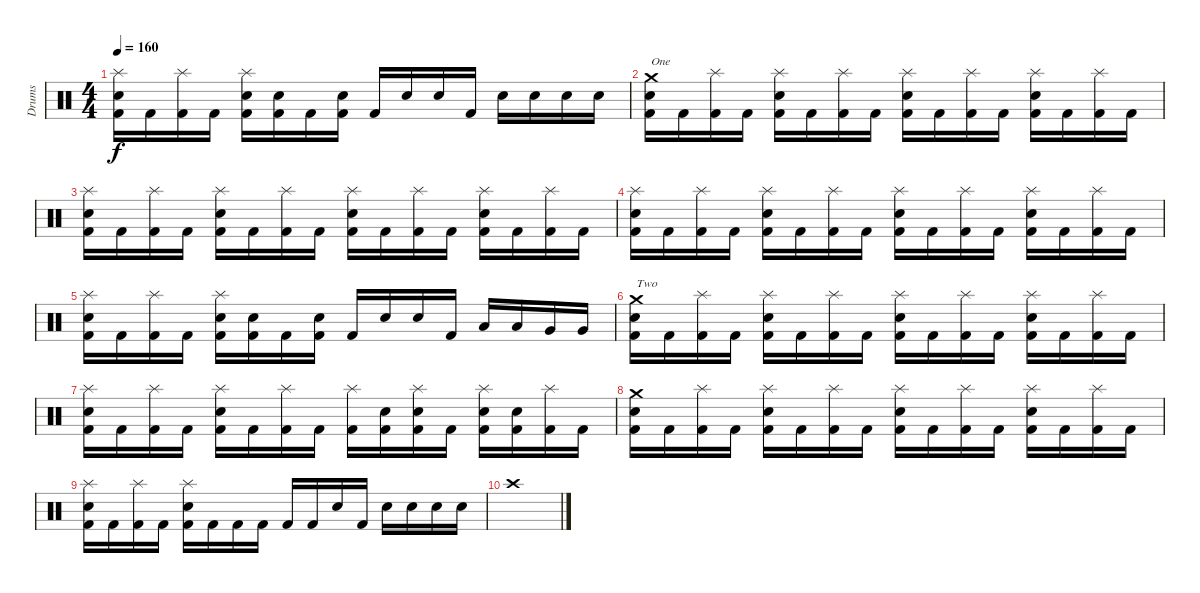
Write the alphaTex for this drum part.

\track ("Drums" "Drums") {instrument percussion}
\staff {score}
\articulation defaults
\ts (4 4)
\tempo 160
\clef neutral
\ks c
("Splash (hit)" "Snare (hit) 2" "Kick (hit) 2").16{dy f} "Kick (hit) 2".16 ("Splash (hit)" "Kick (hit) 2").16 "Kick (hit) 2".16 ("Splash (hit)" "Snare (hit) 2" "Kick (hit) 2").16 ("Snare (hit) 2" "Kick (hit) 2").16 "Kick (hit) 2".16 ("Snare (hit) 2" "Kick (hit) 2").16 "Kick (hit) 2".16 "Snare (hit) 2".16 "Snare (hit) 2".16 "Kick (hit) 2".16 "Snare (hit) 2".16 "Snare (hit) 2".16 "Snare (hit) 2".16 "Snare (hit) 2".16 |
("Crash medium (hit)" "Snare (hit) 2" "Kick (hit) 2").16{txt "One"} "Kick (hit) 2".16 ("Splash (hit)" "Kick (hit) 2").16 "Kick (hit) 2".16 ("Splash (hit)" "Snare (hit) 2" "Kick (hit) 2").16 "Kick (hit) 2".16 ("Splash (hit)" "Kick (hit) 2").16 "Kick (hit) 2".16 ("Splash (hit)" "Snare (hit) 2" "Kick (hit) 2").16 "Kick (hit) 2".16 ("Splash (hit)" "Kick (hit) 2").16 "Kick (hit) 2".16 ("Splash (hit)" "Snare (hit) 2" "Kick (hit) 2").16 "Kick (hit) 2".16 ("Splash (hit)" "Kick (hit) 2").16 "Kick (hit) 2".16 |
("Splash (hit)" "Snare (hit) 2" "Kick (hit) 2").16 "Kick (hit) 2".16 ("Splash (hit)" "Kick (hit) 2").16 "Kick (hit) 2".16 ("Splash (hit)" "Snare (hit) 2" "Kick (hit) 2").16 "Kick (hit) 2".16 ("Splash (hit)" "Kick (hit) 2").16 "Kick (hit) 2".16 ("Splash (hit)" "Snare (hit) 2" "Kick (hit) 2").16 "Kick (hit) 2".16 ("Splash (hit)" "Kick (hit) 2").16 "Kick (hit) 2".16 ("Splash (hit)" "Snare (hit) 2" "Kick (hit) 2").16 "Kick (hit) 2".16 ("Splash (hit)" "Kick (hit) 2").16 "Kick (hit) 2".16 |
("Splash (hit)" "Snare (hit) 2" "Kick (hit) 2").16 "Kick (hit) 2".16 ("Splash (hit)" "Kick (hit) 2").16 "Kick (hit) 2".16 ("Splash (hit)" "Snare (hit) 2" "Kick (hit) 2").16 "Kick (hit) 2".16 ("Splash (hit)" "Kick (hit) 2").16 "Kick (hit) 2".16 ("Splash (hit)" "Snare (hit) 2" "Kick (hit) 2").16 "Kick (hit) 2".16 ("Splash (hit)" "Kick (hit) 2").16 "Kick (hit) 2".16 ("Splash (hit)" "Snare (hit) 2" "Kick (hit) 2").16 "Kick (hit) 2".16 ("Splash (hit)" "Kick (hit) 2").16 "Kick (hit) 2".16 |
("Splash (hit)" "Snare (hit) 2" "Kick (hit) 2").16 "Kick (hit) 2".16 ("Splash (hit)" "Kick (hit) 2").16 "Kick (hit) 2".16 ("Splash (hit)" "Snare (hit) 2" "Kick (hit) 2").16 ("Snare (hit) 2" "Kick (hit) 2").16 "Kick (hit) 2".16 ("Snare (hit) 2" "Kick (hit) 2").16 "Kick (hit) 2".16 "Snare (hit) 2".16 "Snare (hit) 2".16 "Kick (hit) 2".16 "Low Tom (hit)".16 "Low Tom (hit)".16 "Very Low Tom (hit)".16 "Very Low Tom (hit)".16 |
("Crash medium (hit)" "Snare (hit) 2" "Kick (hit) 2").16{txt "Two"} "Kick (hit) 2".16 ("Splash (hit)" "Kick (hit) 2").16 "Kick (hit) 2".16 ("Splash (hit)" "Snare (hit) 2" "Kick (hit) 2").16 "Kick (hit) 2".16 ("Splash (hit)" "Kick (hit) 2").16 "Kick (hit) 2".16 ("Splash (hit)" "Snare (hit) 2" "Kick (hit) 2").16 "Kick (hit) 2".16 ("Splash (hit)" "Kick (hit) 2").16 "Kick (hit) 2".16 ("Splash (hit)" "Snare (hit) 2" "Kick (hit) 2").16 "Kick (hit) 2".16 ("Splash (hit)" "Kick (hit) 2").16 "Kick (hit) 2".16 |
("Splash (hit)" "Snare (hit) 2" "Kick (hit) 2").16 "Kick (hit) 2".16 ("Splash (hit)" "Kick (hit) 2").16 "Kick (hit) 2".16 ("Splash (hit)" "Snare (hit) 2" "Kick (hit) 2").16 "Kick (hit) 2".16 ("Splash (hit)" "Kick (hit) 2").16 "Kick (hit) 2".16 ("Splash (hit)" "Kick (hit) 2").16 ("Snare (hit) 2" "Kick (hit) 2").16 ("Splash (hit)" "Snare (hit) 2" "Kick (hit) 2").16 "Kick (hit) 2".16 ("Splash (hit)" "Snare (hit) 2" "Kick (hit) 2").16 ("Snare (hit) 2" "Kick (hit) 2").16 ("Splash (hit)" "Kick (hit) 2").16 "Kick (hit) 2".16 |
("Crash medium (hit)" "Snare (hit) 2" "Kick (hit) 2").16 "Kick (hit) 2".16 ("Splash (hit)" "Kick (hit) 2").16 "Kick (hit) 2".16 ("Splash (hit)" "Snare (hit) 2" "Kick (hit) 2").16 "Kick (hit) 2".16 ("Splash (hit)" "Kick (hit) 2").16 "Kick (hit) 2".16 ("Splash (hit)" "Snare (hit) 2" "Kick (hit) 2").16 "Kick (hit) 2".16 ("Splash (hit)" "Kick (hit) 2").16 "Kick (hit) 2".16 ("Splash (hit)" "Snare (hit) 2" "Kick (hit) 2").16 "Kick (hit) 2".16 ("Splash (hit)" "Kick (hit) 2").16 "Kick (hit) 2".16 |
("Splash (hit)" "Snare (hit) 2" "Kick (hit) 2").16 "Kick (hit) 2".16 ("Splash (hit)" "Kick (hit) 2").16 "Kick (hit) 2".16 ("Splash (hit)" "Snare (hit) 2" "Kick (hit) 2").16 "Kick (hit) 2".16 "Kick (hit) 2".16 "Kick (hit) 2".16 "Kick (hit) 2".16 "Kick (hit) 2".16 "Snare (hit) 2".16 "Kick (hit) 2".16 "Snare (hit) 2".16 "Snare (hit) 2".16 "Snare (hit) 2".16 "Snare (hit) 2".16 |
"Crash high (hit)".1
